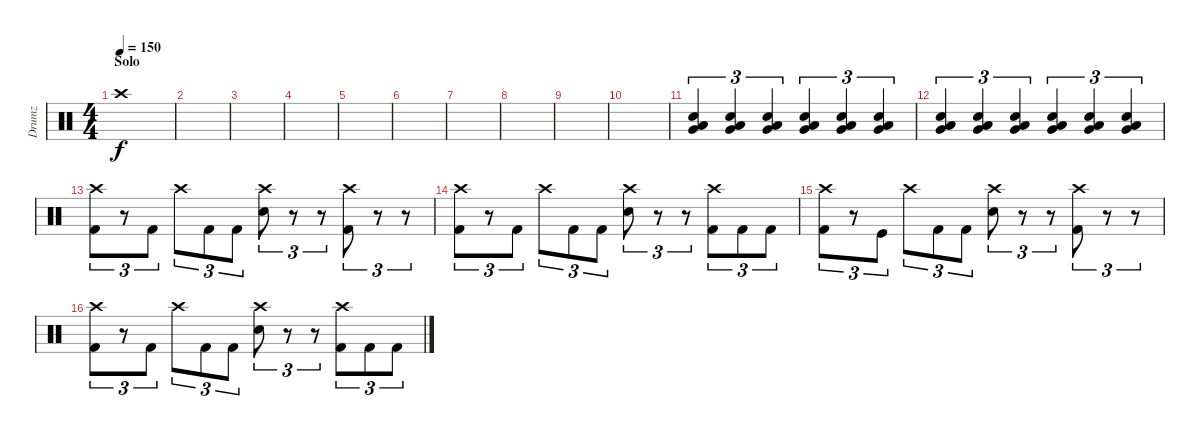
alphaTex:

\track ("Drumz" "Drumz") {instrument percussion}
\staff {score}
\articulation defaults
\ts (4 4)
\section ("" "Solo")
\tempo 150
\clef neutral
\ks c "Crash high (hit)".1{dy f}
|
|
|
|
|
|
|
|
|
|
("Snare (hit) 2" "Low Floor Tom (hit)" "Very Low Tom (hit)").4{tu (3 2) volume 7} ("Snare (hit) 2" "Low Floor Tom (hit)" "Very Low Tom (hit)").4{tu (3 2) volume 14} ("Snare (hit) 2" "Low Floor Tom (hit)" "Very Low Tom (hit)").4{tu (3 2)} ("Snare (hit) 2" "Low Floor Tom (hit)" "Very Low Tom (hit)").4{tu (3 2)} ("Snare (hit) 2" "Low Floor Tom (hit)" "Very Low Tom (hit)").4{tu (3 2)} ("Snare (hit) 2" "Low Floor Tom (hit)" "Very Low Tom (hit)").4{tu (3 2)} |
("Snare (hit) 2" "Low Floor Tom (hit)" "Very Low Tom (hit)").4{tu (3 2)} ("Snare (hit) 2" "Low Floor Tom (hit)" "Very Low Tom (hit)").4{tu (3 2)} ("Snare (hit) 2" "Low Floor Tom (hit)" "Very Low Tom (hit)").4{tu (3 2)} ("Snare (hit) 2" "Low Floor Tom (hit)" "Very Low Tom (hit)").4{tu (3 2)} ("Snare (hit) 2" "Low Floor Tom (hit)" "Very Low Tom (hit)").4{tu (3 2)} ("Snare (hit) 2" "Low Floor Tom (hit)" "Very Low Tom (hit)").4{tu (3 2)} |
("Crash high (hit)" "Kick (hit) 2").8{tu (3 2)} r.8{tu (3 2)} "Kick (hit) 2".8{tu (3 2)} "Crash high (hit)".8{tu (3 2)} "Kick (hit) 2".8{tu (3 2)} "Kick (hit) 2".8{tu (3 2)} ("Crash high (hit)" "Snare (hit) 2").8{tu (3 2)} r.8{tu (3 2)} r.8{tu (3 2)} ("Crash high (hit)" "Kick (hit) 2").8{tu (3 2)} r.8{tu (3 2)} r.8{tu (3 2)} |
("Crash high (hit)" "Kick (hit) 2").8{tu (3 2)} r.8{tu (3 2)} "Kick (hit) 2".8{tu (3 2)} "Crash high (hit)".8{tu (3 2)} "Kick (hit) 2".8{tu (3 2)} "Kick (hit) 2".8{tu (3 2)} ("Crash high (hit)" "Snare (hit) 2").8{tu (3 2)} r.8{tu (3 2)} r.8{tu (3 2)} ("Kick (hit) 2" "Crash high (hit)").8{tu (3 2)} "Kick (hit) 2".8{tu (3 2)} "Kick (hit) 2".8{tu (3 2)} |
("Crash high (hit)" "Kick (hit) 2").8{tu (3 2)} r.8{tu (3 2)} "Kick (hit)".8{tu (3 2)} "Crash high (hit)".8{tu (3 2)} "Kick (hit) 2".8{tu (3 2)} "Kick (hit) 2".8{tu (3 2)} ("Crash high (hit)" "Snare (hit) 2").8{tu (3 2)} r.8{tu (3 2)} r.8{tu (3 2)} ("Crash high (hit)" "Kick (hit) 2").8{tu (3 2)} r.8{tu (3 2)} r.8{tu (3 2)} |
("Crash high (hit)" "Kick (hit) 2").8{tu (3 2)} r.8{tu (3 2)} "Kick (hit) 2".8{tu (3 2)} "Crash high (hit)".8{tu (3 2)} "Kick (hit) 2".8{tu (3 2)} "Kick (hit) 2".8{tu (3 2)} ("Crash high (hit)" "Snare (hit) 2").8{tu (3 2)} r.8{tu (3 2)} r.8{tu (3 2)} ("Kick (hit) 2" "Crash high (hit)").8{tu (3 2)} "Kick (hit) 2".8{tu (3 2)} "Kick (hit) 2".8{tu (3 2)}
